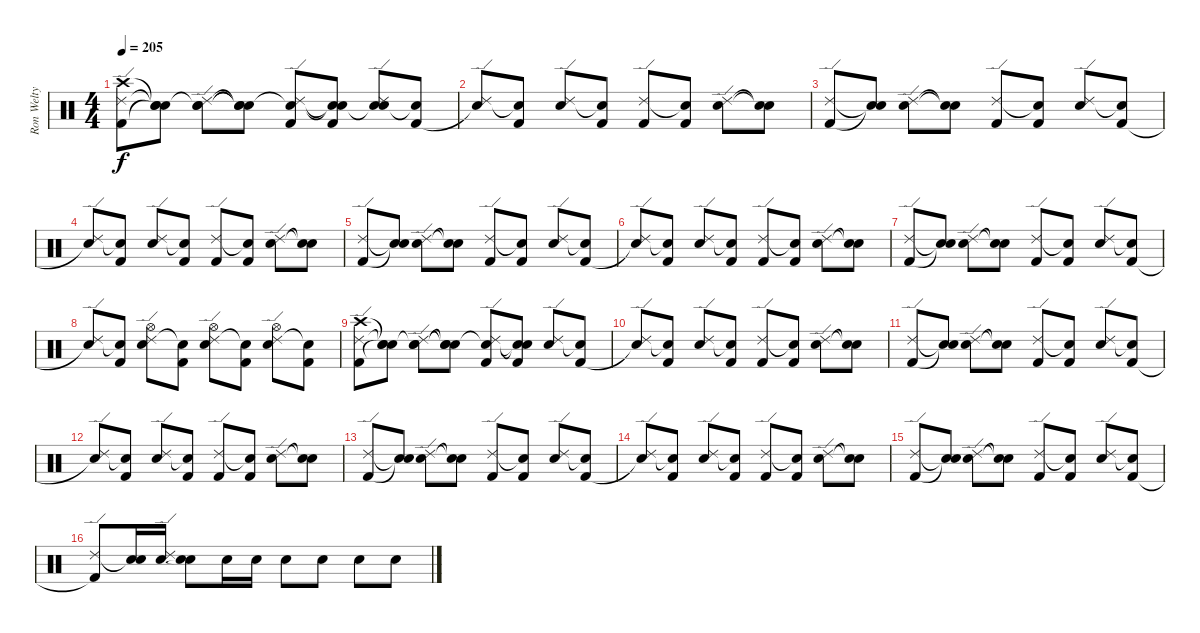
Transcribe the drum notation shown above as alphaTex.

\track ("Ron Welty" "Ron Welty") {instrument percussion}
\staff {score}
\articulation defaults
\ts (4 4)
\tempo 205
\clef neutral
\ks c
("Crash high (hit)" "Ride (edge) 2" "Kick (hit) 2").8{dy f} ("Snare (hit)"{t} "Snare (hit)"{t} "Snare (hit)"{t}).8 ("Snare (hit)"{t} "Ride (edge) 2" "Electric Snare (hit)").8 ("Snare (hit)"{t} "Snare (hit)"{t} "Snare (hit)"{t}).8 ("Snare (hit)"{t} "Ride (edge) 2" "Kick (hit) 2").8 ("Snare (hit)"{t} "Snare (hit)"{t} "Kick (hit) 2").8 ("Snare (hit)"{t} "Ride (edge) 2" "Electric Snare (hit)").8 ("Snare (hit)"{t} "Kick (hit) 2").8 |
("Ride (edge) 2" "Snare (hit)"{t}).8 ("Snare (hit)"{t} "Kick (hit) 2").8 ("Ride (edge) 2" "Electric Snare (hit)").8 ("Snare (hit)"{t} "Kick (hit) 2").8 ("Ride (edge) 2" "Kick (hit) 2").8 ("Snare (hit)"{t} "Kick (hit) 2").8 ("Ride (edge) 2" "Electric Snare (hit)").8 ("Snare (hit)"{t} "Snare (hit)"{t}).8 |
("Ride (edge) 2" "Kick (hit) 2").8 ("Snare (hit)"{t} "Snare (hit)"{t}).8 ("Ride (edge) 2" "Electric Snare (hit)").8 ("Snare (hit)"{t} "Snare (hit)"{t}).8 ("Ride (edge) 2" "Kick (hit) 2").8 ("Snare (hit)"{t} "Kick (hit) 2").8 ("Ride (edge) 2" "Electric Snare (hit)").8 ("Snare (hit)"{t} "Kick (hit) 2").8 |
("Ride (edge) 2" "Snare (hit)"{t}).8 ("Snare (hit)"{t} "Kick (hit) 2").8 ("Ride (edge) 2" "Electric Snare (hit)").8 ("Snare (hit)"{t} "Kick (hit) 2").8 ("Ride (edge) 2" "Kick (hit) 2").8 ("Snare (hit)"{t} "Kick (hit) 2").8 ("Ride (edge) 2" "Electric Snare (hit)").8 ("Snare (hit)"{t} "Snare (hit)"{t}).8 |
("Ride (edge) 2" "Kick (hit) 2").8 ("Snare (hit)"{t} "Snare (hit)"{t}).8 ("Ride (edge) 2" "Electric Snare (hit)").8 ("Snare (hit)"{t} "Snare (hit)"{t}).8 ("Ride (edge) 2" "Kick (hit) 2").8 ("Snare (hit)"{t} "Kick (hit) 2").8 ("Ride (edge) 2" "Electric Snare (hit)").8 ("Snare (hit)"{t} "Kick (hit) 2").8 |
("Ride (edge) 2" "Snare (hit)"{t}).8 ("Snare (hit)"{t} "Kick (hit) 2").8 ("Ride (edge) 2" "Electric Snare (hit)").8 ("Snare (hit)"{t} "Kick (hit) 2").8 ("Ride (edge) 2" "Kick (hit) 2").8 ("Snare (hit)"{t} "Kick (hit) 2").8 ("Ride (edge) 2" "Electric Snare (hit)").8 ("Snare (hit)"{t} "Snare (hit)"{t}).8 |
("Ride (edge) 2" "Kick (hit) 2").8 ("Snare (hit)"{t} "Snare (hit)"{t}).8 ("Ride (edge) 2" "Electric Snare (hit)").8 ("Snare (hit)"{t} "Snare (hit)"{t}).8 ("Ride (edge) 2" "Kick (hit) 2").8 ("Snare (hit)"{t} "Kick (hit) 2").8 ("Ride (edge) 2" "Electric Snare (hit)").8 ("Snare (hit)"{t} "Kick (hit) 2").8 |
("Ride (edge) 2" "Snare (hit)"{t}).8 ("Snare (hit)"{t} "Kick (hit) 2").8 ("Ride (edge) 2" "Hi-Hat (open)" "Electric Snare (hit)").8 ("Snare (hit)"{t} "Kick (hit) 2").8 ("Ride (edge) 2" "Hi-Hat (open)" "Electric Snare (hit)").8 ("Snare (hit)"{t} "Kick (hit) 2").8 ("Ride (edge) 2" "Hi-Hat (open)" "Electric Snare (hit)").8 ("Snare (hit)"{t} "Kick (hit) 2").8 |
("Crash high (hit)" "Ride (edge) 2" "Kick (hit) 2").8 ("Snare (hit)"{t} "Snare (hit)"{t} "Snare (hit)"{t}).8 ("Snare (hit)"{t} "Ride (edge) 2" "Electric Snare (hit)").8 ("Snare (hit)"{t} "Snare (hit)"{t} "Snare (hit)"{t}).8 ("Snare (hit)"{t} "Ride (edge) 2" "Kick (hit) 2").8 ("Snare (hit)"{t} "Snare (hit)"{t} "Kick (hit) 2").8 ("Ride (edge) 2" "Electric Snare (hit)").8 ("Snare (hit)"{t} "Kick (hit) 2").8 |
("Ride (edge) 2" "Snare (hit)"{t}).8 ("Snare (hit)"{t} "Kick (hit) 2").8 ("Ride (edge) 2" "Electric Snare (hit)").8 ("Snare (hit)"{t} "Kick (hit) 2").8 ("Ride (edge) 2" "Kick (hit) 2").8 ("Snare (hit)"{t} "Kick (hit) 2").8 ("Ride (edge) 2" "Electric Snare (hit)").8 ("Snare (hit)"{t} "Snare (hit)"{t}).8 |
("Ride (edge) 2" "Kick (hit) 2").8 ("Snare (hit)"{t} "Snare (hit)"{t}).8 ("Ride (edge) 2" "Electric Snare (hit)").8 ("Snare (hit)"{t} "Snare (hit)"{t}).8 ("Ride (edge) 2" "Kick (hit) 2").8 ("Snare (hit)"{t} "Kick (hit) 2").8 ("Ride (edge) 2" "Electric Snare (hit)").8 ("Snare (hit)"{t} "Kick (hit) 2").8 |
("Ride (edge) 2" "Snare (hit)"{t}).8 ("Snare (hit)"{t} "Kick (hit) 2").8 ("Ride (edge) 2" "Electric Snare (hit)").8 ("Snare (hit)"{t} "Kick (hit) 2").8 ("Ride (edge) 2" "Kick (hit) 2").8 ("Snare (hit)"{t} "Kick (hit) 2").8 ("Ride (edge) 2" "Electric Snare (hit)").8 ("Snare (hit)"{t} "Snare (hit)"{t}).8 |
("Ride (edge) 2" "Kick (hit) 2").8 ("Snare (hit)"{t} "Snare (hit)"{t}).8 ("Ride (edge) 2" "Electric Snare (hit)").8 ("Snare (hit)"{t} "Snare (hit)"{t}).8 ("Ride (edge) 2" "Kick (hit) 2").8 ("Snare (hit)"{t} "Kick (hit) 2").8 ("Ride (edge) 2" "Electric Snare (hit)").8 ("Snare (hit)"{t} "Kick (hit) 2").8 |
("Ride (edge) 2" "Snare (hit)"{t}).8 ("Snare (hit)"{t} "Kick (hit) 2").8 ("Ride (edge) 2" "Electric Snare (hit)").8 ("Snare (hit)"{t} "Kick (hit) 2").8 ("Ride (edge) 2" "Kick (hit) 2").8 ("Snare (hit)"{t} "Kick (hit) 2").8 ("Ride (edge) 2" "Electric Snare (hit)").8 ("Snare (hit)"{t} "Snare (hit)"{t}).8 |
("Ride (edge) 2" "Kick (hit) 2").8 ("Snare (hit)"{t} "Snare (hit)"{t}).8 ("Ride (edge) 2" "Electric Snare (hit)").8 ("Snare (hit)"{t} "Snare (hit)"{t}).8 ("Ride (edge) 2" "Kick (hit) 2").8 ("Snare (hit)"{t} "Kick (hit) 2").8 ("Ride (edge) 2" "Electric Snare (hit)").8 ("Snare (hit)"{t} "Kick (hit) 2").8 |
("Ride (edge) 2" "Kick (hit) 2"{t}).8 ("Snare (hit)"{t} "Electric Snare (hit)").16 ("Ride (edge) 2" "Electric Snare (hit)").16 ("Snare (hit)"{t} "Electric Snare (hit)").8 "Electric Snare (hit)".16 "Electric Snare (hit)".16 "Electric Snare (hit)".8 "Electric Snare (hit)".8 "Electric Snare (hit)".8 "Electric Snare (hit)".8
